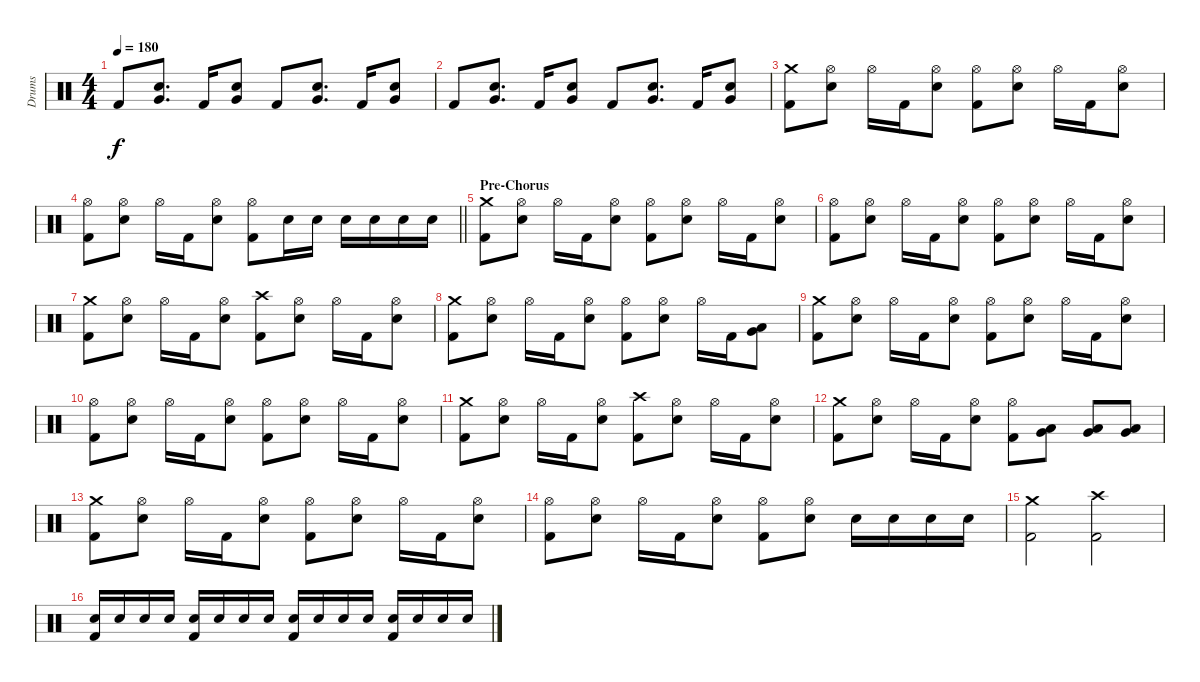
\track ("Drums" "Drums") {instrument percussion}
\staff {score}
\articulation defaults
\ts (4 4)
\tempo 180
\clef neutral
\ks c "Kick (hit) 2".8{dy f}
("Very Low Tom (hit)" "Electric Snare (hit)").8{d} "Kick (hit) 2".16 ("Very Low Tom (hit)" "Electric Snare (hit)").8 "Kick (hit) 2".8 ("Very Low Tom (hit)" "Electric Snare (hit)").8{d} "Kick (hit) 2".16 ("Very Low Tom (hit)" "Electric Snare (hit)").8 |
"Kick (hit) 2".8 ("Very Low Tom (hit)" "Electric Snare (hit)").8{d} "Kick (hit) 2".16 ("Very Low Tom (hit)" "Electric Snare (hit)").8 "Kick (hit) 2".8 ("Very Low Tom (hit)" "Electric Snare (hit)").8{d} "Kick (hit) 2".16 ("Very Low Tom (hit)" "Electric Snare (hit)").8 |
("Crash medium (hit)" "Kick (hit) 2").8 ("Hi-Hat (open)" "Electric Snare (hit)").8 "Hi-Hat (open)".16 "Kick (hit) 2".16 ("Hi-Hat (open)" "Electric Snare (hit)").8 ("Hi-Hat (open)" "Kick (hit) 2").8 ("Hi-Hat (open)" "Electric Snare (hit)").8 "Hi-Hat (open)".16 "Kick (hit) 2".16 ("Hi-Hat (open)" "Electric Snare (hit)").8 |
\barLineRight lightlight
("Hi-Hat (open)" "Kick (hit) 2").8 ("Hi-Hat (open)" "Electric Snare (hit)").8 "Hi-Hat (open)".16 "Kick (hit) 2".16 ("Hi-Hat (open)" "Electric Snare (hit)").8 ("Hi-Hat (open)" "Kick (hit) 2").8 "Electric Snare (hit)".16 "Electric Snare (hit)".16 "Electric Snare (hit)".16 "Electric Snare (hit)".16 "Electric Snare (hit)".16 "Electric Snare (hit)".16 |
\section ("" "Pre-Chorus")
("Crash medium (hit)" "Kick (hit) 2").8 ("Hi-Hat (open)" "Electric Snare (hit)").8 "Hi-Hat (open)".16 "Kick (hit) 2".16 ("Hi-Hat (open)" "Electric Snare (hit)").8 ("Hi-Hat (open)" "Kick (hit) 2").8 ("Hi-Hat (open)" "Electric Snare (hit)").8 "Hi-Hat (open)".16 "Kick (hit) 2".16 ("Hi-Hat (open)" "Electric Snare (hit)").8 |
("Hi-Hat (open)" "Kick (hit) 2").8 ("Hi-Hat (open)" "Electric Snare (hit)").8 "Hi-Hat (open)".16 "Kick (hit) 2".16 ("Hi-Hat (open)" "Electric Snare (hit)").8 ("Hi-Hat (open)" "Kick (hit) 2").8 ("Hi-Hat (open)" "Electric Snare (hit)").8 "Hi-Hat (open)".16 "Kick (hit) 2".16 ("Hi-Hat (open)" "Electric Snare (hit)").8 |
("Crash medium (hit)" "Kick (hit) 2").8 ("Hi-Hat (open)" "Electric Snare (hit)").8 "Hi-Hat (open)".16 "Kick (hit) 2".16 ("Hi-Hat (open)" "Electric Snare (hit)").8 ("Crash high (hit)" "Kick (hit) 2").8 ("Hi-Hat (open)" "Electric Snare (hit)").8 "Hi-Hat (open)".16 "Kick (hit) 2".16 ("Hi-Hat (open)" "Electric Snare (hit)").8 |
("Crash medium (hit)" "Kick (hit) 2").8 ("Hi-Hat (open)" "Electric Snare (hit)").8 "Hi-Hat (open)".16 "Kick (hit) 2".16 ("Hi-Hat (open)" "Electric Snare (hit)").8 ("Hi-Hat (open)" "Kick (hit) 2").8 ("Hi-Hat (open)" "Electric Snare (hit)").8 "Hi-Hat (open)".16 "Kick (hit) 2".16 ("Very Low Tom (hit)" "Low Tom (hit)").8 |
("Crash medium (hit)" "Kick (hit) 2").8 ("Hi-Hat (open)" "Electric Snare (hit)").8 "Hi-Hat (open)".16 "Kick (hit) 2".16 ("Hi-Hat (open)" "Electric Snare (hit)").8 ("Hi-Hat (open)" "Kick (hit) 2").8 ("Hi-Hat (open)" "Electric Snare (hit)").8 "Hi-Hat (open)".16 "Kick (hit) 2".16 ("Hi-Hat (open)" "Electric Snare (hit)").8 |
("Hi-Hat (open)" "Kick (hit) 2").8 ("Hi-Hat (open)" "Electric Snare (hit)").8 "Hi-Hat (open)".16 "Kick (hit) 2".16 ("Hi-Hat (open)" "Electric Snare (hit)").8 ("Hi-Hat (open)" "Kick (hit) 2").8 ("Hi-Hat (open)" "Electric Snare (hit)").8 "Hi-Hat (open)".16 "Kick (hit) 2".16 ("Hi-Hat (open)" "Electric Snare (hit)").8 |
("Crash medium (hit)" "Kick (hit) 2").8 ("Hi-Hat (open)" "Electric Snare (hit)").8 "Hi-Hat (open)".16 "Kick (hit) 2".16 ("Hi-Hat (open)" "Electric Snare (hit)").8 ("Crash high (hit)" "Kick (hit) 2").8 ("Hi-Hat (open)" "Electric Snare (hit)").8 "Hi-Hat (open)".16 "Kick (hit) 2".16 ("Hi-Hat (open)" "Electric Snare (hit)").8 |
("Crash medium (hit)" "Kick (hit) 2").8 ("Hi-Hat (open)" "Electric Snare (hit)").8 "Hi-Hat (open)".16 "Kick (hit) 2".16 ("Hi-Hat (open)" "Electric Snare (hit)").8 ("Hi-Hat (open)" "Kick (hit) 2").8 ("Low Tom (hit)" "Very Low Tom (hit)").8 ("Low Tom (hit)" "Very Low Tom (hit)").8 ("Low Tom (hit)" "Very Low Tom (hit)").8 |
("Crash medium (hit)" "Kick (hit) 2").8 ("Hi-Hat (open)" "Electric Snare (hit)").8 "Hi-Hat (open)".16 "Kick (hit) 2".16 ("Hi-Hat (open)" "Electric Snare (hit)").8 ("Hi-Hat (open)" "Kick (hit) 2").8 ("Hi-Hat (open)" "Electric Snare (hit)").8 "Hi-Hat (open)".16 "Kick (hit) 2".16 ("Hi-Hat (open)" "Electric Snare (hit)").8 |
("Hi-Hat (open)" "Kick (hit) 2").8 ("Hi-Hat (open)" "Electric Snare (hit)").8 "Hi-Hat (open)".16 "Kick (hit) 2".16 ("Hi-Hat (open)" "Electric Snare (hit)").8 ("Hi-Hat (open)" "Kick (hit) 2").8 ("Hi-Hat (open)" "Electric Snare (hit)").8 "Electric Snare (hit)".16 "Electric Snare (hit)".16 "Electric Snare (hit)".16 "Electric Snare (hit)".16 |
("Crash medium (hit)" "Kick (hit) 2").2 ("Crash high (hit)" "Kick (hit) 2").2 |
("Electric Snare (hit)" "Kick (hit) 2").16 "Electric Snare (hit)".16 "Electric Snare (hit)".16 "Electric Snare (hit)".16 ("Electric Snare (hit)" "Kick (hit) 2").16 "Electric Snare (hit)".16 "Electric Snare (hit)".16 "Electric Snare (hit)".16 ("Electric Snare (hit)" "Kick (hit) 2").16 "Electric Snare (hit)".16 "Electric Snare (hit)".16 "Electric Snare (hit)".16 ("Electric Snare (hit)" "Kick (hit) 2").16 "Electric Snare (hit)".16 "Electric Snare (hit)".16 "Electric Snare (hit)".16
